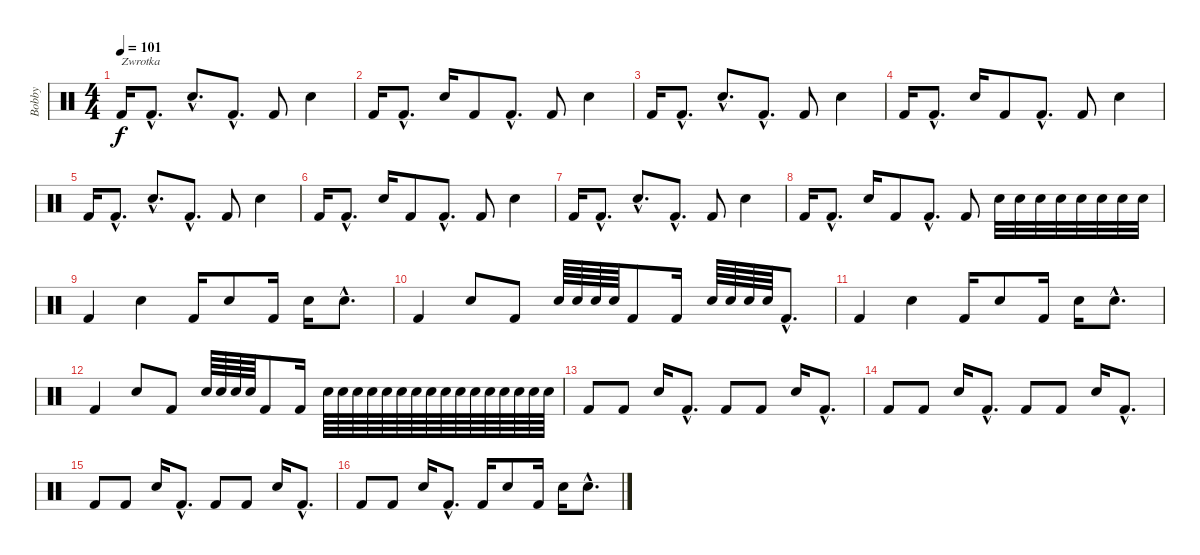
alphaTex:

\track ("Bobby " "Bobby ") {instrument percussion}
\staff {score}
\articulation defaults
\ts (4 4)
\tempo 101
\clef neutral
\ks c "Kick (hit) 2".16{txt "Zwrotka" dy f} "Kick (hit) 2"{hac}.8{d} "Electric Snare (hit)"{hac}.8{d} "Kick (hit) 2"{hac}.8{d} "Kick (hit) 2".8 "Electric Snare (hit)".4
|
"Kick (hit) 2".16 "Kick (hit) 2"{hac}.8{d} "Electric Snare (hit)".16 "Kick (hit) 2".8 "Kick (hit) 2"{hac}.8{d} "Kick (hit) 2".8 "Electric Snare (hit)".4 |
"Kick (hit) 2".16 "Kick (hit) 2"{hac}.8{d} "Electric Snare (hit)"{hac}.8{d} "Kick (hit) 2"{hac}.8{d} "Kick (hit) 2".8 "Electric Snare (hit)".4 |
"Kick (hit) 2".16 "Kick (hit) 2"{hac}.8{d} "Electric Snare (hit)".16 "Kick (hit) 2".8 "Kick (hit) 2"{hac}.8{d} "Kick (hit) 2".8 "Electric Snare (hit)".4 |
"Kick (hit) 2".16 "Kick (hit) 2"{hac}.8{d} "Electric Snare (hit)"{hac}.8{d} "Kick (hit) 2"{hac}.8{d} "Kick (hit) 2".8 "Electric Snare (hit)".4 |
"Kick (hit) 2".16 "Kick (hit) 2"{hac}.8{d} "Electric Snare (hit)".16 "Kick (hit) 2".8 "Kick (hit) 2"{hac}.8{d} "Kick (hit) 2".8 "Electric Snare (hit)".4 |
"Kick (hit) 2".16 "Kick (hit) 2"{hac}.8{d} "Electric Snare (hit)"{hac}.8{d} "Kick (hit) 2"{hac}.8{d} "Kick (hit) 2".8 "Electric Snare (hit)".4 |
"Kick (hit) 2".16 "Kick (hit) 2"{hac}.8{d} "Electric Snare (hit)".16 "Kick (hit) 2".8 "Kick (hit) 2"{hac}.8{d} "Kick (hit) 2".8 "Electric Snare (hit)".32 "Electric Snare (hit)".32 "Electric Snare (hit)".32 "Electric Snare (hit)".32 "Electric Snare (hit)".32 "Electric Snare (hit)".32 "Electric Snare (hit)".32 "Electric Snare (hit)".32 |
"Kick (hit) 2".4 "Electric Snare (hit)".4 "Kick (hit) 2".16 "Electric Snare (hit)".8 "Kick (hit) 2".16 "Electric Snare (hit)".16 "Electric Snare (hit)"{hac}.8{d} |
"Kick (hit) 2".4 "Electric Snare (hit)".8 "Kick (hit) 2".8 "Electric Snare (hit)".64 "Electric Snare (hit)".64 "Electric Snare (hit)".64 "Electric Snare (hit)".64 "Kick (hit) 2".8 "Kick (hit) 2".16 "Electric Snare (hit)".64 "Electric Snare (hit)".64 "Electric Snare (hit)".64 "Electric Snare (hit)".64 "Kick (hit) 2"{hac}.8{d} |
"Kick (hit) 2".4 "Electric Snare (hit)".4 "Kick (hit) 2".16 "Electric Snare (hit)".8 "Kick (hit) 2".16 "Electric Snare (hit)".16 "Electric Snare (hit)"{hac}.8{d} |
"Kick (hit) 2".4 "Electric Snare (hit)".8 "Kick (hit) 2".8 "Electric Snare (hit)".64 "Electric Snare (hit)".64 "Electric Snare (hit)".64 "Electric Snare (hit)".64 "Kick (hit) 2".8 "Kick (hit) 2".16 "Electric Snare (hit)".64 "Electric Snare (hit)".64 "Electric Snare (hit)".64 "Electric Snare (hit)".64 "Electric Snare (hit)".64 "Electric Snare (hit)".64 "Electric Snare (hit)".64 "Electric Snare (hit)".64 "Electric Snare (hit)".64 "Electric Snare (hit)".64 "Electric Snare (hit)".64 "Electric Snare (hit)".64 "Electric Snare (hit)".64 "Electric Snare (hit)".64 "Electric Snare (hit)".64 "Electric Snare (hit)".64 |
"Kick (hit) 2".8 "Kick (hit) 2".8 "Electric Snare (hit)".16 "Kick (hit) 2"{hac}.8{d} "Kick (hit) 2".8 "Kick (hit) 2".8 "Electric Snare (hit)".16 "Kick (hit) 2"{hac}.8{d} |
"Kick (hit) 2".8 "Kick (hit) 2".8 "Electric Snare (hit)".16 "Kick (hit) 2"{hac}.8{d} "Kick (hit) 2".8 "Kick (hit) 2".8 "Electric Snare (hit)".16 "Kick (hit) 2"{hac}.8{d} |
"Kick (hit) 2".8 "Kick (hit) 2".8 "Electric Snare (hit)".16 "Kick (hit) 2"{hac}.8{d} "Kick (hit) 2".8 "Kick (hit) 2".8 "Electric Snare (hit)".16 "Kick (hit) 2"{hac}.8{d} |
"Kick (hit) 2".8 "Kick (hit) 2".8 "Electric Snare (hit)".16 "Kick (hit) 2"{hac}.8{d} "Kick (hit) 2".16 "Electric Snare (hit)".8 "Kick (hit) 2".16 "Electric Snare (hit)".16 "Electric Snare (hit)"{hac}.8{d}
